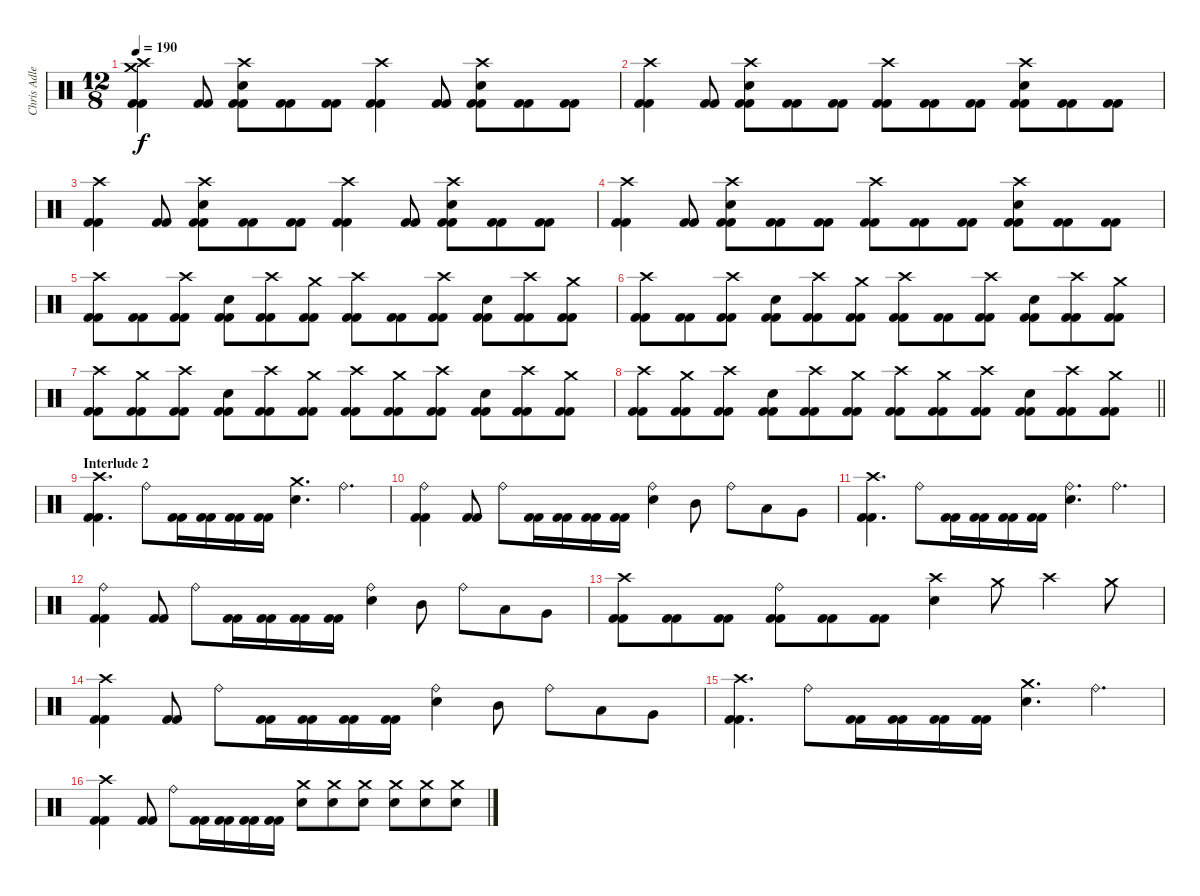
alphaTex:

\track ("Chris Adler" "Chris Adle") {instrument percussion}
\staff {score}
\articulation defaults
\ts (12 8)
\tempo 190
\clef neutral
\ks c
("Crash medium (hit)" "Crash high (hit)" "Kick (hit) 2" "Kick (hit) 2").4{dy f} ("Kick (hit) 2" "Kick (hit) 2").8 ("Crash high (hit)" "Electric Snare (hit)" "Kick (hit) 2" "Kick (hit) 2").8 ("Kick (hit) 2" "Kick (hit) 2").8 ("Kick (hit) 2" "Kick (hit) 2").8 ("Crash high (hit)" "Kick (hit) 2" "Kick (hit) 2").4 ("Kick (hit) 2" "Kick (hit) 2").8 ("Crash high (hit)" "Electric Snare (hit)" "Kick (hit) 2" "Kick (hit) 2").8 ("Kick (hit) 2" "Kick (hit) 2").8 ("Kick (hit) 2" "Kick (hit) 2").8 |
("Crash high (hit)" "Kick (hit) 2" "Kick (hit) 2").4 ("Kick (hit) 2" "Kick (hit) 2").8 ("Crash high (hit)" "Electric Snare (hit)" "Kick (hit) 2" "Kick (hit) 2").8 ("Kick (hit) 2" "Kick (hit) 2").8 ("Kick (hit) 2" "Kick (hit) 2").8 ("Crash high (hit)" "Kick (hit) 2" "Kick (hit) 2").8 ("Kick (hit) 2" "Kick (hit) 2").8 ("Kick (hit) 2" "Kick (hit) 2").8 ("Crash high (hit)" "Electric Snare (hit)" "Kick (hit) 2" "Kick (hit) 2").8 ("Kick (hit) 2" "Kick (hit) 2").8 ("Kick (hit) 2" "Kick (hit) 2").8 |
("Crash high (hit)" "Kick (hit) 2" "Kick (hit) 2").4 ("Kick (hit) 2" "Kick (hit) 2").8 ("Crash high (hit)" "Electric Snare (hit)" "Kick (hit) 2" "Kick (hit) 2").8 ("Kick (hit) 2" "Kick (hit) 2").8 ("Kick (hit) 2" "Kick (hit) 2").8 ("Crash high (hit)" "Kick (hit) 2" "Kick (hit) 2").4 ("Kick (hit) 2" "Kick (hit) 2").8 ("Crash high (hit)" "Electric Snare (hit)" "Kick (hit) 2" "Kick (hit) 2").8 ("Kick (hit) 2" "Kick (hit) 2").8 ("Kick (hit) 2" "Kick (hit) 2").8 |
("Crash high (hit)" "Kick (hit) 2" "Kick (hit) 2").4 ("Kick (hit) 2" "Kick (hit) 2").8 ("Crash high (hit)" "Electric Snare (hit)" "Kick (hit) 2" "Kick (hit) 2").8 ("Kick (hit) 2" "Kick (hit) 2").8 ("Kick (hit) 2" "Kick (hit) 2").8 ("Crash high (hit)" "Kick (hit) 2" "Kick (hit) 2").8 ("Kick (hit) 2" "Kick (hit) 2").8 ("Kick (hit) 2" "Kick (hit) 2").8 ("Crash high (hit)" "Electric Snare (hit)" "Kick (hit) 2" "Kick (hit) 2").8 ("Kick (hit) 2" "Kick (hit) 2").8 ("Kick (hit) 2" "Kick (hit) 2").8 |
("Crash high (hit)" "Kick (hit) 2" "Kick (hit) 2").8 ("Kick (hit) 2" "Kick (hit) 2").8 ("Crash high (hit)" "Kick (hit) 2" "Kick (hit) 2").8 ("Electric Snare (hit)" "Kick (hit) 2" "Kick (hit) 2").8 ("Crash high (hit)" "Kick (hit) 2" "Kick (hit) 2").8 ("Crash medium (hit)" "Kick (hit) 2" "Kick (hit) 2").8 ("Crash high (hit)" "Kick (hit) 2" "Kick (hit) 2").8 ("Kick (hit) 2" "Kick (hit) 2").8 ("Crash high (hit)" "Kick (hit) 2" "Kick (hit) 2").8 ("Electric Snare (hit)" "Kick (hit) 2" "Kick (hit) 2").8 ("Crash high (hit)" "Kick (hit) 2" "Kick (hit) 2").8 ("Crash medium (hit)" "Kick (hit) 2" "Kick (hit) 2").8 |
("Crash high (hit)" "Kick (hit) 2" "Kick (hit) 2").8 ("Kick (hit) 2" "Kick (hit) 2").8 ("Crash high (hit)" "Kick (hit) 2" "Kick (hit) 2").8 ("Electric Snare (hit)" "Kick (hit) 2" "Kick (hit) 2").8 ("Crash high (hit)" "Kick (hit) 2" "Kick (hit) 2").8 ("Crash medium (hit)" "Kick (hit) 2" "Kick (hit) 2").8 ("Crash high (hit)" "Kick (hit) 2" "Kick (hit) 2").8 ("Kick (hit) 2" "Kick (hit) 2").8 ("Crash high (hit)" "Kick (hit) 2" "Kick (hit) 2").8 ("Electric Snare (hit)" "Kick (hit) 2" "Kick (hit) 2").8 ("Crash high (hit)" "Kick (hit) 2" "Kick (hit) 2").8 ("Crash medium (hit)" "Kick (hit) 2" "Kick (hit) 2").8 |
("Crash high (hit)" "Kick (hit) 2" "Kick (hit) 2").8 ("Crash medium (hit)" "Kick (hit) 2" "Kick (hit) 2").8 ("Crash high (hit)" "Kick (hit) 2" "Kick (hit) 2").8 ("Electric Snare (hit)" "Kick (hit) 2" "Kick (hit) 2").8 ("Crash high (hit)" "Kick (hit) 2" "Kick (hit) 2").8 ("Crash medium (hit)" "Kick (hit) 2" "Kick (hit) 2").8 ("Crash high (hit)" "Kick (hit) 2" "Kick (hit) 2").8 ("Crash medium (hit)" "Kick (hit) 2" "Kick (hit) 2").8 ("Crash high (hit)" "Kick (hit) 2" "Kick (hit) 2").8 ("Electric Snare (hit)" "Kick (hit) 2" "Kick (hit) 2").8 ("Crash high (hit)" "Kick (hit) 2" "Kick (hit) 2").8 ("Crash medium (hit)" "Kick (hit) 2" "Kick (hit) 2").8 |
\barLineRight lightlight
("Crash high (hit)" "Kick (hit) 2" "Kick (hit) 2").8 ("Crash medium (hit)" "Kick (hit) 2" "Kick (hit) 2").8 ("Crash high (hit)" "Kick (hit) 2" "Kick (hit) 2").8 ("Electric Snare (hit)" "Kick (hit) 2" "Kick (hit) 2").8 ("Crash high (hit)" "Kick (hit) 2" "Kick (hit) 2").8 ("Crash medium (hit)" "Kick (hit) 2" "Kick (hit) 2").8 ("Crash high (hit)" "Kick (hit) 2" "Kick (hit) 2").8 ("Crash medium (hit)" "Kick (hit) 2" "Kick (hit) 2").8 ("Crash high (hit)" "Kick (hit) 2" "Kick (hit) 2").8 ("Electric Snare (hit)" "Kick (hit) 2" "Kick (hit) 2").8 ("Crash high (hit)" "Kick (hit) 2" "Kick (hit) 2").8 ("Crash medium (hit)" "Kick (hit) 2" "Kick (hit) 2").8 |
\section ("" "Interlude 2")
("Crash high (hit)" "Kick (hit) 2" "Kick (hit) 2").4{d} "Ride (bell)".8 ("Kick (hit) 2" "Kick (hit) 2").16 ("Kick (hit) 2" "Kick (hit) 2").16 ("Kick (hit) 2" "Kick (hit) 2").16 ("Kick (hit) 2" "Kick (hit) 2").16 ("Crash medium (hit)" "Electric Snare (hit)").4{d} "Ride (bell)".4{d} |
("Ride (bell)" "Kick (hit) 2" "Kick (hit) 2").4 ("Kick (hit) 2" "Kick (hit) 2").8 "Ride (bell)".8 ("Kick (hit) 2" "Kick (hit) 2").16 ("Kick (hit) 2" "Kick (hit) 2").16 ("Kick (hit) 2" "Kick (hit) 2").16 ("Kick (hit) 2" "Kick (hit) 2").16 ("Ride (bell)" "Electric Snare (hit)").4 "Mid Tom (hit)".8 "Ride (bell)".8 "Low Tom (hit)".8 "Very Low Tom (hit)".8 |
("Crash high (hit)" "Kick (hit) 2" "Kick (hit) 2").4{d} "Ride (bell)".8 ("Kick (hit) 2" "Kick (hit) 2").16 ("Kick (hit) 2" "Kick (hit) 2").16 ("Kick (hit) 2" "Kick (hit) 2").16 ("Kick (hit) 2" "Kick (hit) 2").16 ("Ride (bell)" "Electric Snare (hit)").4{d} "Ride (bell)".4{d} |
("Ride (bell)" "Kick (hit) 2" "Kick (hit) 2").4 ("Kick (hit) 2" "Kick (hit) 2").8 "Ride (bell)".8 ("Kick (hit) 2" "Kick (hit) 2").16 ("Kick (hit) 2" "Kick (hit) 2").16 ("Kick (hit) 2" "Kick (hit) 2").16 ("Kick (hit) 2" "Kick (hit) 2").16 ("Ride (bell)" "Electric Snare (hit)").4 "Mid Tom (hit)".8 "Ride (bell)".8 "Low Tom (hit)".8 "Very Low Tom (hit)".8 |
("Crash high (hit)" "Kick (hit) 2" "Kick (hit) 2").8 ("Kick (hit) 2" "Kick (hit) 2").8 ("Kick (hit) 2" "Kick (hit) 2").8 ("Ride (bell)" "Kick (hit) 2" "Kick (hit) 2").8 ("Kick (hit) 2" "Kick (hit) 2").8 ("Kick (hit) 2" "Kick (hit) 2").8 ("Crash high (hit)" "Electric Snare (hit)").4 "Crash medium (hit)".8 "Crash high (hit)".4 "Crash medium (hit)".8 |
("Crash high (hit)" "Kick (hit) 2" "Kick (hit) 2").4 ("Kick (hit) 2" "Kick (hit) 2").8 "Ride (bell)".8 ("Kick (hit) 2" "Kick (hit) 2").16 ("Kick (hit) 2" "Kick (hit) 2").16 ("Kick (hit) 2" "Kick (hit) 2").16 ("Kick (hit) 2" "Kick (hit) 2").16 ("Ride (bell)" "Electric Snare (hit)").4 "Mid Tom (hit)".8 "Ride (bell)".8 "Low Tom (hit)".8 "Very Low Tom (hit)".8 |
("Crash high (hit)" "Kick (hit) 2" "Kick (hit) 2").4{d} "Ride (bell)".8 ("Kick (hit) 2" "Kick (hit) 2").16 ("Kick (hit) 2" "Kick (hit) 2").16 ("Kick (hit) 2" "Kick (hit) 2").16 ("Kick (hit) 2" "Kick (hit) 2").16 ("Crash medium (hit)" "Electric Snare (hit)").4{d} "Ride (bell)".4{d} |
("Crash high (hit)" "Kick (hit) 2" "Kick (hit) 2").4 ("Kick (hit) 2" "Kick (hit) 2").8 "Ride (bell)".8 ("Kick (hit) 2" "Kick (hit) 2").16 ("Kick (hit) 2" "Kick (hit) 2").16 ("Kick (hit) 2" "Kick (hit) 2").16 ("Kick (hit) 2" "Kick (hit) 2").16 ("Crash medium (hit)" "Electric Snare (hit)").8 ("Crash medium (hit)" "Electric Snare (hit)").8 ("Crash medium (hit)" "Electric Snare (hit)").8 ("Crash medium (hit)" "Electric Snare (hit)").8 ("Crash medium (hit)" "Electric Snare (hit)").8 ("Crash medium (hit)" "Electric Snare (hit)").8
